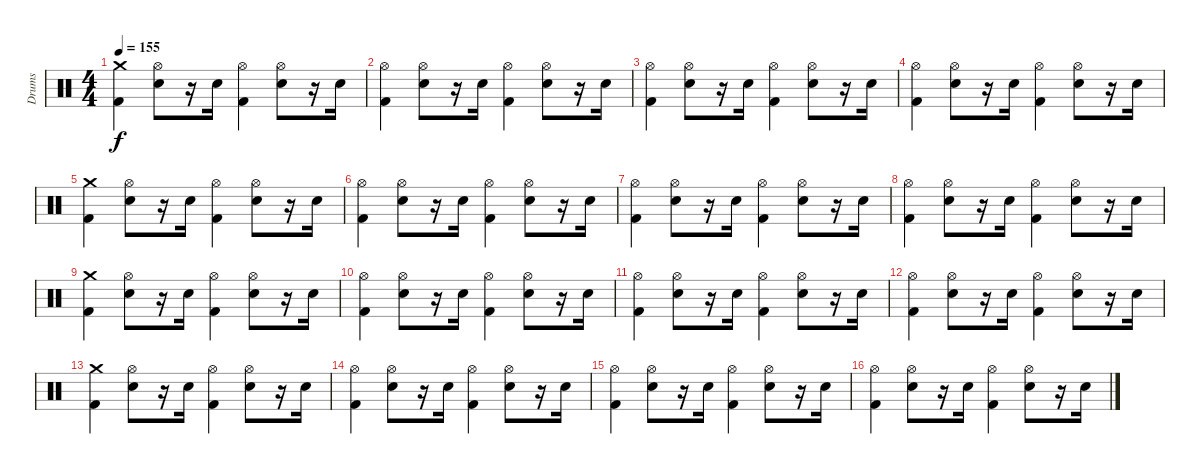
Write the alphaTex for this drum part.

\track ("Drums" "Drums") {instrument percussion}
\staff {score}
\articulation defaults
\ts (4 4)
\tempo 155
\clef neutral
\ks c
("Crash medium (hit)" "Kick (hit) 2").4{dy f} ("Hi-Hat (open)" "Snare (hit) 2").8 r.16 "Snare (hit) 2".16 ("Hi-Hat (open)" "Kick (hit) 2").4 ("Hi-Hat (open)" "Snare (hit) 2").8 r.16 "Snare (hit) 2".16 |
("Hi-Hat (open)" "Kick (hit) 2").4 ("Hi-Hat (open)" "Snare (hit) 2").8 r.16 "Snare (hit) 2".16 ("Hi-Hat (open)" "Kick (hit) 2").4 ("Hi-Hat (open)" "Snare (hit) 2").8 r.16 "Snare (hit) 2".16 |
("Hi-Hat (open)" "Kick (hit) 2").4 ("Hi-Hat (open)" "Snare (hit) 2").8 r.16 "Snare (hit) 2".16 ("Hi-Hat (open)" "Kick (hit) 2").4 ("Hi-Hat (open)" "Snare (hit) 2").8 r.16 "Snare (hit) 2".16 |
("Hi-Hat (open)" "Kick (hit) 2").4 ("Hi-Hat (open)" "Snare (hit) 2").8 r.16 "Snare (hit) 2".16 ("Hi-Hat (open)" "Kick (hit) 2").4 ("Hi-Hat (open)" "Snare (hit) 2").8 r.16 "Snare (hit) 2".16 |
("Crash medium (hit)" "Kick (hit) 2").4 ("Hi-Hat (open)" "Snare (hit) 2").8 r.16 "Snare (hit) 2".16 ("Hi-Hat (open)" "Kick (hit) 2").4 ("Hi-Hat (open)" "Snare (hit) 2").8 r.16 "Snare (hit) 2".16 |
("Hi-Hat (open)" "Kick (hit) 2").4 ("Hi-Hat (open)" "Snare (hit) 2").8 r.16 "Snare (hit) 2".16 ("Hi-Hat (open)" "Kick (hit) 2").4 ("Hi-Hat (open)" "Snare (hit) 2").8 r.16 "Snare (hit) 2".16 |
("Hi-Hat (open)" "Kick (hit) 2").4 ("Hi-Hat (open)" "Snare (hit) 2").8 r.16 "Snare (hit) 2".16 ("Hi-Hat (open)" "Kick (hit) 2").4 ("Hi-Hat (open)" "Snare (hit) 2").8 r.16 "Snare (hit) 2".16 |
("Hi-Hat (open)" "Kick (hit) 2").4 ("Hi-Hat (open)" "Snare (hit) 2").8 r.16 "Snare (hit) 2".16 ("Hi-Hat (open)" "Kick (hit) 2").4 ("Hi-Hat (open)" "Snare (hit) 2").8 r.16 "Snare (hit) 2".16 |
("Crash medium (hit)" "Kick (hit) 2").4 ("Hi-Hat (open)" "Snare (hit) 2").8 r.16 "Snare (hit) 2".16 ("Hi-Hat (open)" "Kick (hit) 2").4 ("Hi-Hat (open)" "Snare (hit) 2").8 r.16 "Snare (hit) 2".16 |
("Hi-Hat (open)" "Kick (hit) 2").4 ("Hi-Hat (open)" "Snare (hit) 2").8 r.16 "Snare (hit) 2".16 ("Hi-Hat (open)" "Kick (hit) 2").4 ("Hi-Hat (open)" "Snare (hit) 2").8 r.16 "Snare (hit) 2".16 |
("Hi-Hat (open)" "Kick (hit) 2").4 ("Hi-Hat (open)" "Snare (hit) 2").8 r.16 "Snare (hit) 2".16 ("Hi-Hat (open)" "Kick (hit) 2").4 ("Hi-Hat (open)" "Snare (hit) 2").8 r.16 "Snare (hit) 2".16 |
("Hi-Hat (open)" "Kick (hit) 2").4 ("Hi-Hat (open)" "Snare (hit) 2").8 r.16 "Snare (hit) 2".16 ("Hi-Hat (open)" "Kick (hit) 2").4 ("Hi-Hat (open)" "Snare (hit) 2").8 r.16 "Snare (hit) 2".16 |
("Crash medium (hit)" "Kick (hit) 2").4 ("Hi-Hat (open)" "Snare (hit) 2").8 r.16 "Snare (hit) 2".16 ("Hi-Hat (open)" "Kick (hit) 2").4 ("Hi-Hat (open)" "Snare (hit) 2").8 r.16 "Snare (hit) 2".16 |
("Hi-Hat (open)" "Kick (hit) 2").4 ("Hi-Hat (open)" "Snare (hit) 2").8 r.16 "Snare (hit) 2".16 ("Hi-Hat (open)" "Kick (hit) 2").4 ("Hi-Hat (open)" "Snare (hit) 2").8 r.16 "Snare (hit) 2".16 |
("Hi-Hat (open)" "Kick (hit) 2").4 ("Hi-Hat (open)" "Snare (hit) 2").8 r.16 "Snare (hit) 2".16 ("Hi-Hat (open)" "Kick (hit) 2").4 ("Hi-Hat (open)" "Snare (hit) 2").8 r.16 "Snare (hit) 2".16 |
("Hi-Hat (open)" "Kick (hit) 2").4 ("Hi-Hat (open)" "Snare (hit) 2").8 r.16 "Snare (hit) 2".16 ("Hi-Hat (open)" "Kick (hit) 2").4 ("Hi-Hat (open)" "Snare (hit) 2").8 r.16 "Snare (hit) 2".16
